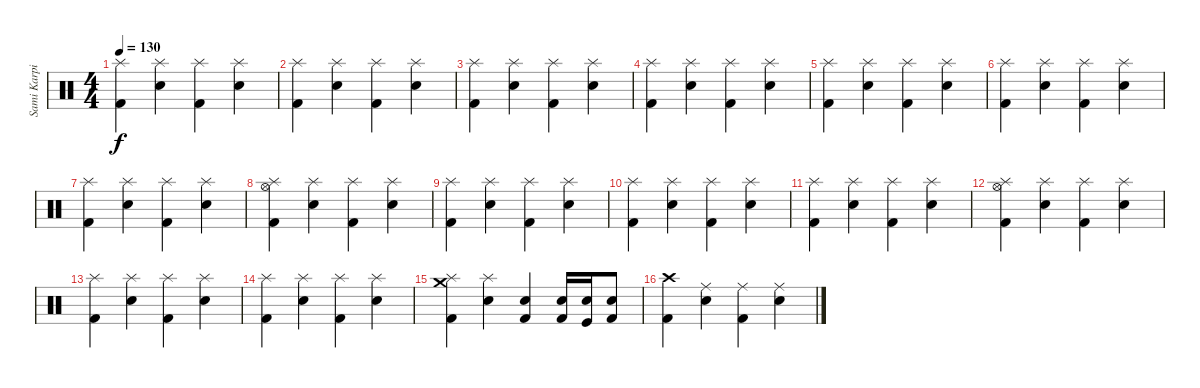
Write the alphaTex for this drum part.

\track ("Sami Karpinnen" "Sami Karpi") {instrument percussion}
\staff {score}
\articulation defaults
\ts (4 4)
\tempo 130
\clef neutral
\ks c
("Splash (hit)" "Kick (hit) 2").4{dy f} ("Splash (hit)" "Electric Snare (hit)").4 ("Splash (hit)" "Kick (hit) 2").4 ("Splash (hit)" "Electric Snare (hit)").4 |
("Splash (hit)" "Kick (hit) 2").4 ("Splash (hit)" "Electric Snare (hit)").4 ("Splash (hit)" "Kick (hit) 2").4 ("Splash (hit)" "Electric Snare (hit)").4 |
("Splash (hit)" "Kick (hit) 2").4 ("Splash (hit)" "Electric Snare (hit)").4 ("Splash (hit)" "Kick (hit) 2").4 ("Splash (hit)" "Electric Snare (hit)").4 |
("Splash (hit)" "Kick (hit) 2").4 ("Splash (hit)" "Electric Snare (hit)").4 ("Splash (hit)" "Kick (hit) 2").4 ("Splash (hit)" "Electric Snare (hit)").4 |
("Splash (hit)" "Kick (hit) 2").4 ("Splash (hit)" "Electric Snare (hit)").4 ("Splash (hit)" "Kick (hit) 2").4 ("Splash (hit)" "Electric Snare (hit)").4 |
("Splash (hit)" "Kick (hit) 2").4 ("Splash (hit)" "Electric Snare (hit)").4 ("Splash (hit)" "Kick (hit) 2").4 ("Splash (hit)" "Electric Snare (hit)").4 |
("Splash (hit)" "Kick (hit) 2").4 ("Splash (hit)" "Electric Snare (hit)").4 ("Splash (hit)" "Kick (hit) 2").4 ("Splash (hit)" "Electric Snare (hit)").4 |
("Hi-Hat (open)" "Splash (hit)" "Kick (hit) 2").4 ("Splash (hit)" "Electric Snare (hit)").4 ("Splash (hit)" "Kick (hit) 2").4 ("Splash (hit)" "Electric Snare (hit)").4 |
("Splash (hit)" "Kick (hit) 2").4 ("Splash (hit)" "Electric Snare (hit)").4 ("Splash (hit)" "Kick (hit) 2").4 ("Splash (hit)" "Electric Snare (hit)").4 |
("Splash (hit)" "Kick (hit) 2").4 ("Splash (hit)" "Electric Snare (hit)").4 ("Splash (hit)" "Kick (hit) 2").4 ("Splash (hit)" "Electric Snare (hit)").4 |
("Splash (hit)" "Kick (hit) 2").4 ("Splash (hit)" "Electric Snare (hit)").4 ("Splash (hit)" "Kick (hit) 2").4 ("Splash (hit)" "Electric Snare (hit)").4 |
("Hi-Hat (open)" "Splash (hit)" "Kick (hit) 2").4 ("Splash (hit)" "Electric Snare (hit)").4 ("Splash (hit)" "Kick (hit) 2").4 ("Splash (hit)" "Electric Snare (hit)").4 |
("Splash (hit)" "Kick (hit) 2").4 ("Splash (hit)" "Electric Snare (hit)").4 ("Splash (hit)" "Kick (hit) 2").4 ("Splash (hit)" "Electric Snare (hit)").4 |
("Splash (hit)" "Kick (hit) 2").4 ("Splash (hit)" "Electric Snare (hit)").4 ("Splash (hit)" "Kick (hit) 2").4 ("Splash (hit)" "Electric Snare (hit)").4 |
("Crash medium (hit)" "Splash (hit)" "Kick (hit) 2").4 ("Splash (hit)" "Electric Snare (hit)").4 ("Electric Snare (hit)" "Kick (hit) 2").4 ("Electric Snare (hit)" "Kick (hit) 2").16 ("Electric Snare (hit)" "Kick (hit)").16 ("Electric Snare (hit)" "Kick (hit) 2").8 |
("Crash high (hit)" "Kick (hit) 2").4 ("Ride (middle)" "Electric Snare (hit)").4 ("Ride (middle)" "Kick (hit) 2").4 ("Ride (middle)" "Electric Snare (hit)").4
